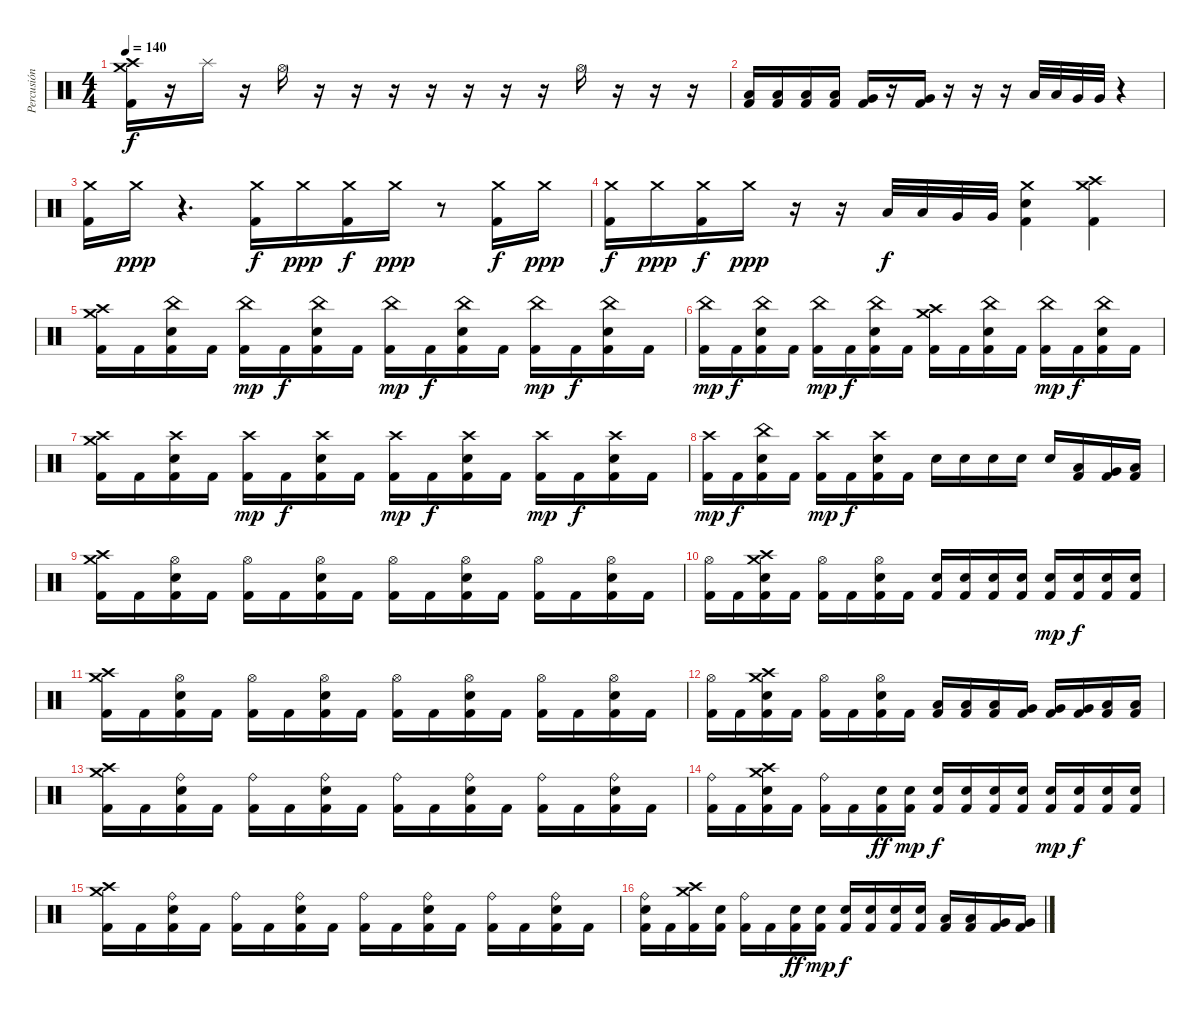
\track ("Percusión" "Percusión") {instrument percussion}
\staff {score}
\articulation defaults
\ts (4 4)
\tempo 140
\clef neutral
\ks c
("Crash medium (hit)" "Crash high (hit)" "Kick (hit) 2").16{dy f} r.16 "Splash (hit)".16 r.16 "Hi-Hat (open)".16 r.16 r.16 r.16 r.16 r.16 r.16 r.16 "Hi-Hat (open)".16 r.16 r.16 r.16 |
("Low Tom (hit)" "Kick (hit) 2").16 ("Low Tom (hit)" "Kick (hit) 2").16 ("Low Tom (hit)" "Kick (hit) 2").16 ("Low Tom (hit)" "Kick (hit) 2").16 ("Very Low Tom (hit)" "Kick (hit) 2").16 r.16 ("Very Low Tom (hit)" "Kick (hit) 2").16 r.16 r.16 r.16 "Low Tom (hit)".32 "Low Tom (hit)".32 "Very Low Tom (hit)".32 "Very Low Tom (hit)".32 r.4 |
("Crash medium (hit)" "Kick (hit) 2").16 "Crash medium (hit)".16{dy ppp} r.4{d} ("Crash medium (hit)" "Kick (hit) 2").16{dy f} "Crash medium (hit)".16{dy ppp} ("Crash medium (hit)" "Kick (hit) 2").16{dy f} "Crash medium (hit)".16{dy ppp} r.8 ("Crash medium (hit)" "Kick (hit) 2").16{dy f} "Crash medium (hit)".16{dy ppp} |
("Crash medium (hit)" "Kick (hit) 2").16{dy f} "Crash medium (hit)".16{dy ppp} ("Crash medium (hit)" "Kick (hit) 2").16{dy f} "Crash medium (hit)".16{dy ppp} r.16 r.16 "Low Tom (hit)".32{dy f} "Low Tom (hit)".32 "Very Low Tom (hit)".32 "Very Low Tom (hit)".32 ("Crash medium (hit)" "Electric Snare (hit)" "Kick (hit) 2").4 ("Crash medium (hit)" "Crash high (hit)" "Kick (hit) 2").4 |
("Crash medium (hit)" "Crash high (hit)" "Kick (hit) 2").16 "Kick (hit) 2".16 ("China (hit)" "Electric Snare (hit)" "Kick (hit) 2").16 "Kick (hit) 2".16 ("China (hit)" "Kick (hit) 2").16{dy mp} "Kick (hit) 2".16{dy f} ("China (hit)" "Electric Snare (hit)" "Kick (hit) 2").16 "Kick (hit) 2".16 ("China (hit)" "Kick (hit) 2").16{dy mp} "Kick (hit) 2".16{dy f} ("China (hit)" "Electric Snare (hit)" "Kick (hit) 2").16 "Kick (hit) 2".16 ("China (hit)" "Kick (hit) 2").16{dy mp} "Kick (hit) 2".16{dy f} ("China (hit)" "Electric Snare (hit)" "Kick (hit) 2").16 "Kick (hit) 2".16 |
("China (hit)" "Kick (hit) 2").16{dy mp} "Kick (hit) 2".16{dy f} ("China (hit)" "Electric Snare (hit)" "Kick (hit) 2").16 "Kick (hit) 2".16 ("China (hit)" "Kick (hit) 2").16{dy mp} "Kick (hit) 2".16{dy f} ("China (hit)" "Electric Snare (hit)" "Kick (hit) 2").16 "Kick (hit) 2".16 ("Crash medium (hit)" "Crash high (hit)" "Kick (hit) 2").16 "Kick (hit) 2".16 ("China (hit)" "Electric Snare (hit)" "Kick (hit) 2").16 "Kick (hit) 2".16 ("China (hit)" "Kick (hit) 2").16{dy mp} "Kick (hit) 2".16{dy f} ("China (hit)" "Electric Snare (hit)" "Kick (hit) 2").16 "Kick (hit) 2".16 |
("Crash medium (hit)" "Crash high (hit)" "Kick (hit) 2").16 "Kick (hit) 2".16 ("Crash high (hit)" "Electric Snare (hit)" "Kick (hit) 2").16 "Kick (hit) 2".16 ("Crash high (hit)" "Kick (hit) 2").16{dy mp} "Kick (hit) 2".16{dy f} ("Crash high (hit)" "Electric Snare (hit)" "Kick (hit) 2").16 "Kick (hit) 2".16 ("Crash high (hit)" "Kick (hit) 2").16{dy mp} "Kick (hit) 2".16{dy f} ("Crash high (hit)" "Electric Snare (hit)" "Kick (hit) 2").16 "Kick (hit) 2".16 ("Crash high (hit)" "Kick (hit) 2").16{dy mp} "Kick (hit) 2".16{dy f} ("Crash high (hit)" "Electric Snare (hit)" "Kick (hit) 2").16 "Kick (hit) 2".16 |
("Crash high (hit)" "Kick (hit) 2").16{dy mp} "Kick (hit) 2".16{dy f} ("China (hit)" "Electric Snare (hit)" "Kick (hit) 2").16 "Kick (hit) 2".16 ("Crash high (hit)" "Kick (hit) 2").16{dy mp} "Kick (hit) 2".16{dy f} ("Crash high (hit)" "Electric Snare (hit)" "Kick (hit) 2").16 "Kick (hit) 2".16 "Electric Snare (hit)".16 "Electric Snare (hit)".16 "Electric Snare (hit)".16 "Electric Snare (hit)".16 "Electric Snare (hit)".16 ("Low Tom (hit)" "Kick (hit) 2").16 ("Very Low Tom (hit)" "Kick (hit) 2").16 ("Low Floor Tom (hit)" "Kick (hit) 2").16 |
("Crash medium (hit)" "Crash high (hit)" "Kick (hit) 2").16 "Kick (hit) 2".16 ("Hi-Hat (open)" "Electric Snare (hit)" "Kick (hit) 2").16 "Kick (hit) 2".16 ("Hi-Hat (open)" "Kick (hit) 2").16 "Kick (hit) 2".16 ("Hi-Hat (open)" "Electric Snare (hit)" "Kick (hit) 2").16 "Kick (hit) 2".16 ("Hi-Hat (open)" "Kick (hit) 2").16 "Kick (hit) 2".16 ("Hi-Hat (open)" "Electric Snare (hit)" "Kick (hit) 2").16 "Kick (hit) 2".16 ("Hi-Hat (open)" "Kick (hit) 2").16 "Kick (hit) 2".16 ("Hi-Hat (open)" "Electric Snare (hit)" "Kick (hit) 2").16 "Kick (hit) 2".16 |
("Hi-Hat (open)" "Kick (hit) 2").16 "Kick (hit) 2".16 ("Crash medium (hit)" "Crash high (hit)" "Electric Snare (hit)" "Kick (hit) 2").16 "Kick (hit) 2".16 ("Hi-Hat (open)" "Kick (hit) 2").16 "Kick (hit) 2".16 ("Hi-Hat (open)" "Electric Snare (hit)" "Kick (hit) 2").16 "Kick (hit) 2".16 ("Electric Snare (hit)" "Kick (hit) 2").16 ("Electric Snare (hit)" "Kick (hit) 2").16 ("Electric Snare (hit)" "Kick (hit) 2").16 ("Electric Snare (hit)" "Kick (hit) 2").16 ("Electric Snare (hit)" "Kick (hit) 2").16{dy mp} ("Electric Snare (hit)" "Kick (hit) 2").16{dy f} ("Electric Snare (hit)" "Kick (hit) 2").16 ("Electric Snare (hit)" "Kick (hit) 2").16 |
("Crash medium (hit)" "Crash high (hit)" "Kick (hit) 2").16 "Kick (hit) 2".16 ("Hi-Hat (open)" "Electric Snare (hit)" "Kick (hit) 2").16 "Kick (hit) 2".16 ("Hi-Hat (open)" "Kick (hit) 2").16 "Kick (hit) 2".16 ("Hi-Hat (open)" "Electric Snare (hit)" "Kick (hit) 2").16 "Kick (hit) 2".16 ("Hi-Hat (open)" "Kick (hit) 2").16 "Kick (hit) 2".16 ("Hi-Hat (open)" "Electric Snare (hit)" "Kick (hit) 2").16 "Kick (hit) 2".16 ("Hi-Hat (open)" "Kick (hit) 2").16 "Kick (hit) 2".16 ("Hi-Hat (open)" "Electric Snare (hit)" "Kick (hit) 2").16 "Kick (hit) 2".16 |
("Hi-Hat (open)" "Kick (hit) 2").16 "Kick (hit) 2".16 ("Crash medium (hit)" "Crash high (hit)" "Electric Snare (hit)" "Kick (hit) 2").16 "Kick (hit) 2".16 ("Hi-Hat (open)" "Kick (hit) 2").16 "Kick (hit) 2".16 ("Hi-Hat (open)" "Electric Snare (hit)" "Kick (hit) 2").16 "Kick (hit) 2".16 ("Low Tom (hit)" "Kick (hit) 2").16 ("Low Tom (hit)" "Kick (hit) 2").16 ("Low Tom (hit)" "Kick (hit) 2").16 ("Very Low Tom (hit)" "Kick (hit) 2").16 ("Very Low Tom (hit)" "Kick (hit) 2").16 ("Very Low Tom (hit)" "Kick (hit) 2").16 ("Low Floor Tom (hit)" "Kick (hit) 2").16 ("Low Floor Tom (hit)" "Kick (hit) 2").16 |
("Crash medium (hit)" "Crash high (hit)" "Kick (hit) 2").16 "Kick (hit) 2".16 ("Ride (bell)" "Electric Snare (hit)" "Kick (hit) 2").16 "Kick (hit) 2".16 ("Ride (bell)" "Kick (hit) 2").16 "Kick (hit) 2".16 ("Ride (bell)" "Electric Snare (hit)" "Kick (hit) 2").16 "Kick (hit) 2".16 ("Ride (bell)" "Kick (hit) 2").16 "Kick (hit) 2".16 ("Ride (bell)" "Electric Snare (hit)" "Kick (hit) 2").16 "Kick (hit) 2".16 ("Ride (bell)" "Kick (hit) 2").16 "Kick (hit) 2".16 ("Ride (bell)" "Electric Snare (hit)" "Kick (hit) 2").16 "Kick (hit) 2".16 |
("Ride (bell)" "Kick (hit) 2").16 "Kick (hit) 2".16 ("Crash medium (hit)" "Crash high (hit)" "Electric Snare (hit)" "Kick (hit) 2").16 "Kick (hit) 2".16 ("Ride (bell)" "Kick (hit) 2").16 "Kick (hit) 2".16 ("Electric Snare (hit)" "Kick (hit) 2").16{dy ff} ("Electric Snare (hit)" "Kick (hit) 2").16{dy mp} ("Electric Snare (hit)" "Kick (hit) 2").16{dy f} ("Electric Snare (hit)" "Kick (hit) 2").16 ("Electric Snare (hit)" "Kick (hit) 2").16 ("Electric Snare (hit)" "Kick (hit) 2").16 ("Electric Snare (hit)" "Kick (hit) 2").16{dy mp} ("Electric Snare (hit)" "Kick (hit) 2").16{dy f} ("Electric Snare (hit)" "Kick (hit) 2").16 ("Electric Snare (hit)" "Kick (hit) 2").16 |
("Crash medium (hit)" "Crash high (hit)" "Kick (hit) 2").16 "Kick (hit) 2".16 ("Ride (bell)" "Electric Snare (hit)" "Kick (hit) 2").16 "Kick (hit) 2".16 ("Ride (bell)" "Kick (hit) 2").16 "Kick (hit) 2".16 ("Ride (bell)" "Electric Snare (hit)" "Kick (hit) 2").16 "Kick (hit) 2".16 ("Ride (bell)" "Kick (hit) 2").16 "Kick (hit) 2".16 ("Ride (bell)" "Electric Snare (hit)" "Kick (hit) 2").16 "Kick (hit) 2".16 ("Ride (bell)" "Kick (hit) 2").16 "Kick (hit) 2".16 ("Ride (bell)" "Electric Snare (hit)" "Kick (hit) 2").16 "Kick (hit) 2".16 |
("Ride (bell)" "Electric Snare (hit)" "Kick (hit) 2").16 "Kick (hit) 2".16 ("Crash medium (hit)" "Crash high (hit)" "Kick (hit) 2").16 ("Electric Snare (hit)" "Kick (hit) 2").16 ("Ride (bell)" "Kick (hit) 2").16 "Kick (hit) 2".16 ("Electric Snare (hit)" "Kick (hit) 2").16{dy ff} ("Electric Snare (hit)" "Kick (hit) 2").16{dy mp} ("Electric Snare (hit)" "Kick (hit) 2").16{dy f} ("Electric Snare (hit)" "Kick (hit) 2").16 ("Electric Snare (hit)" "Kick (hit) 2").16 ("Electric Snare (hit)" "Kick (hit) 2").16 ("Low Tom (hit)" "Kick (hit) 2").16 ("Low Tom (hit)" "Kick (hit) 2").16 ("Very Low Tom (hit)" "Kick (hit) 2").16 ("Very Low Tom (hit)" "Kick (hit) 2").16
